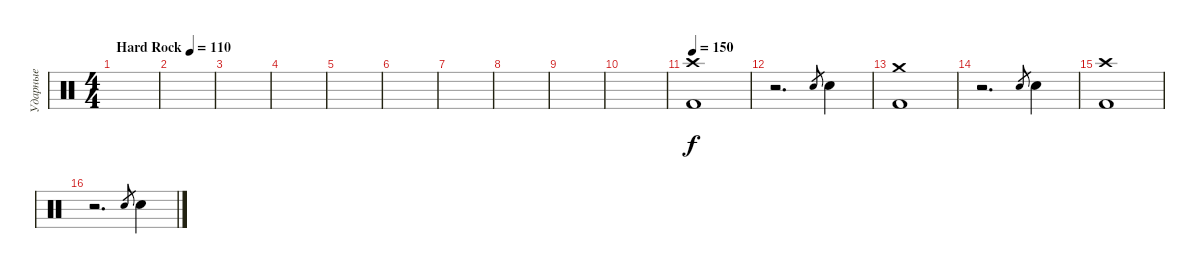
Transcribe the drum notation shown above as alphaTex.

\track ("Ударные" "Ударные") {instrument percussion}
\staff {score}
\articulation defaults
\ts (4 4)
\tempo (110 "Hard Rock")
\clef neutral
\ks c
|
|
|
|
|
|
|
|
|
|
\tempo 150
("Crash high (hit)" "Kick (hit) 2").1 |
r.2{d} "Snare (hit) 2".8{gr} "Snare (hit) 2".4 |
("Crash medium (hit)" "Kick (hit) 2").1 |
r.2{d} "Snare (hit) 2".8{gr} "Snare (hit) 2".4 |
("Crash high (hit)" "Kick (hit) 2").1 |
r.2{d} "Snare (hit) 2".8{gr} "Snare (hit) 2".4
